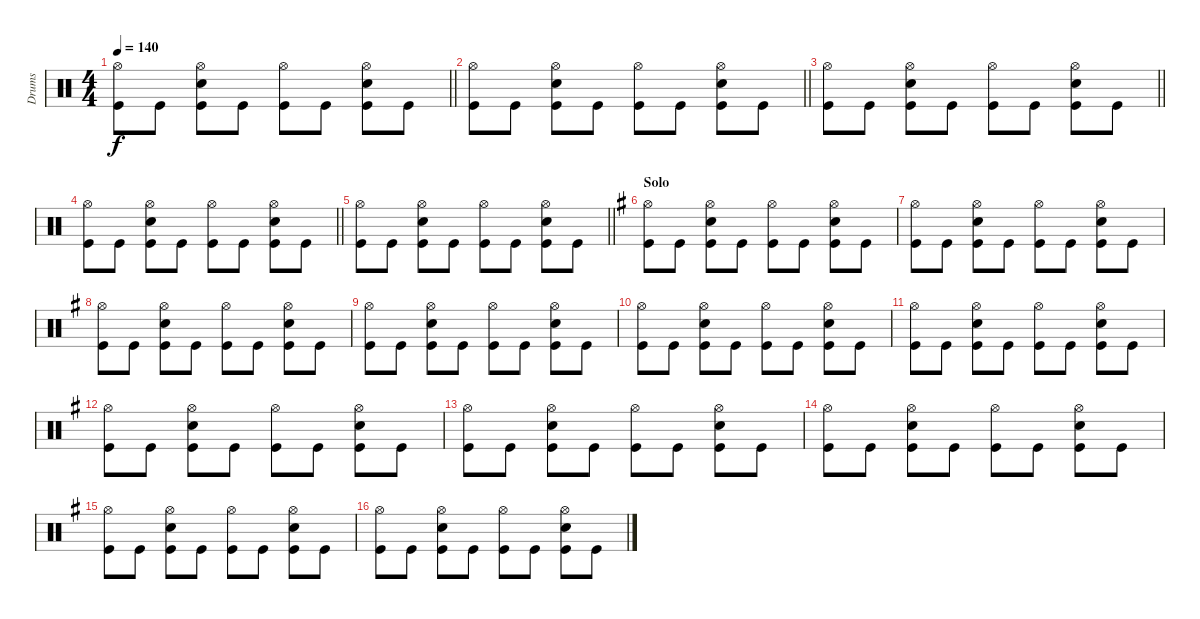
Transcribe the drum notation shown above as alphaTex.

\track ("Drums" "Drums") {instrument percussion}
\staff {score}
\articulation defaults
\ts (4 4)
\tempo 140
\clef neutral
\barLineRight lightlight
\ks c
("Hi-Hat (open)" "Kick (hit)").8{dy f} "Kick (hit)".8 ("Hi-Hat (open)" "Snare (hit) 2" "Kick (hit)").8 "Kick (hit)".8 ("Hi-Hat (open)" "Kick (hit)").8 "Kick (hit)".8 ("Hi-Hat (open)" "Snare (hit) 2" "Kick (hit)").8 "Kick (hit)".8 |
\barLineRight lightlight
("Hi-Hat (open)" "Kick (hit)").8 "Kick (hit)".8 ("Hi-Hat (open)" "Snare (hit) 2" "Kick (hit)").8 "Kick (hit)".8 ("Hi-Hat (open)" "Kick (hit)").8 "Kick (hit)".8 ("Hi-Hat (open)" "Snare (hit) 2" "Kick (hit)").8 "Kick (hit)".8 |
\barLineRight lightlight
("Hi-Hat (open)" "Kick (hit)").8 "Kick (hit)".8 ("Hi-Hat (open)" "Snare (hit) 2" "Kick (hit)").8 "Kick (hit)".8 ("Hi-Hat (open)" "Kick (hit)").8 "Kick (hit)".8 ("Hi-Hat (open)" "Snare (hit) 2" "Kick (hit)").8 "Kick (hit)".8 |
\barLineRight lightlight
("Hi-Hat (open)" "Kick (hit)").8 "Kick (hit)".8 ("Hi-Hat (open)" "Snare (hit) 2" "Kick (hit)").8 "Kick (hit)".8 ("Hi-Hat (open)" "Kick (hit)").8 "Kick (hit)".8 ("Hi-Hat (open)" "Snare (hit) 2" "Kick (hit)").8 "Kick (hit)".8 |
\barLineRight lightlight
("Hi-Hat (open)" "Kick (hit)").8 "Kick (hit)".8 ("Hi-Hat (open)" "Snare (hit) 2" "Kick (hit)").8 "Kick (hit)".8 ("Hi-Hat (open)" "Kick (hit)").8 "Kick (hit)".8 ("Hi-Hat (open)" "Snare (hit) 2" "Kick (hit)").8 "Kick (hit)".8 |
\section ("" "Solo")
\ks g
("Hi-Hat (open)" "Kick (hit)").8 "Kick (hit)".8 ("Hi-Hat (open)" "Snare (hit) 2" "Kick (hit)").8 "Kick (hit)".8 ("Hi-Hat (open)" "Kick (hit)").8 "Kick (hit)".8 ("Hi-Hat (open)" "Snare (hit) 2" "Kick (hit)").8 "Kick (hit)".8 |
("Hi-Hat (open)" "Kick (hit)").8 "Kick (hit)".8 ("Hi-Hat (open)" "Snare (hit) 2" "Kick (hit)").8 "Kick (hit)".8 ("Hi-Hat (open)" "Kick (hit)").8 "Kick (hit)".8 ("Hi-Hat (open)" "Snare (hit) 2" "Kick (hit)").8 "Kick (hit)".8 |
("Hi-Hat (open)" "Kick (hit)").8 "Kick (hit)".8 ("Hi-Hat (open)" "Snare (hit) 2" "Kick (hit)").8 "Kick (hit)".8 ("Hi-Hat (open)" "Kick (hit)").8 "Kick (hit)".8 ("Hi-Hat (open)" "Snare (hit) 2" "Kick (hit)").8 "Kick (hit)".8 |
("Hi-Hat (open)" "Kick (hit)").8 "Kick (hit)".8 ("Hi-Hat (open)" "Snare (hit) 2" "Kick (hit)").8 "Kick (hit)".8 ("Hi-Hat (open)" "Kick (hit)").8 "Kick (hit)".8 ("Hi-Hat (open)" "Snare (hit) 2" "Kick (hit)").8 "Kick (hit)".8 |
("Hi-Hat (open)" "Kick (hit)").8 "Kick (hit)".8 ("Hi-Hat (open)" "Snare (hit) 2" "Kick (hit)").8 "Kick (hit)".8 ("Hi-Hat (open)" "Kick (hit)").8 "Kick (hit)".8 ("Hi-Hat (open)" "Snare (hit) 2" "Kick (hit)").8 "Kick (hit)".8 |
("Hi-Hat (open)" "Kick (hit)").8 "Kick (hit)".8 ("Hi-Hat (open)" "Snare (hit) 2" "Kick (hit)").8 "Kick (hit)".8 ("Hi-Hat (open)" "Kick (hit)").8 "Kick (hit)".8 ("Hi-Hat (open)" "Snare (hit) 2" "Kick (hit)").8 "Kick (hit)".8 |
("Hi-Hat (open)" "Kick (hit)").8 "Kick (hit)".8 ("Hi-Hat (open)" "Snare (hit) 2" "Kick (hit)").8 "Kick (hit)".8 ("Hi-Hat (open)" "Kick (hit)").8 "Kick (hit)".8 ("Hi-Hat (open)" "Snare (hit) 2" "Kick (hit)").8 "Kick (hit)".8 |
("Hi-Hat (open)" "Kick (hit)").8 "Kick (hit)".8 ("Hi-Hat (open)" "Snare (hit) 2" "Kick (hit)").8 "Kick (hit)".8 ("Hi-Hat (open)" "Kick (hit)").8 "Kick (hit)".8 ("Hi-Hat (open)" "Snare (hit) 2" "Kick (hit)").8 "Kick (hit)".8 |
("Hi-Hat (open)" "Kick (hit)").8 "Kick (hit)".8 ("Hi-Hat (open)" "Snare (hit) 2" "Kick (hit)").8 "Kick (hit)".8 ("Hi-Hat (open)" "Kick (hit)").8 "Kick (hit)".8 ("Hi-Hat (open)" "Snare (hit) 2" "Kick (hit)").8 "Kick (hit)".8 |
("Hi-Hat (open)" "Kick (hit)").8 "Kick (hit)".8 ("Hi-Hat (open)" "Snare (hit) 2" "Kick (hit)").8 "Kick (hit)".8 ("Hi-Hat (open)" "Kick (hit)").8 "Kick (hit)".8 ("Hi-Hat (open)" "Snare (hit) 2" "Kick (hit)").8 "Kick (hit)".8 |
("Hi-Hat (open)" "Kick (hit)").8 "Kick (hit)".8 ("Hi-Hat (open)" "Snare (hit) 2" "Kick (hit)").8 "Kick (hit)".8 ("Hi-Hat (open)" "Kick (hit)").8 "Kick (hit)".8 ("Hi-Hat (open)" "Snare (hit) 2" "Kick (hit)").8 "Kick (hit)".8
